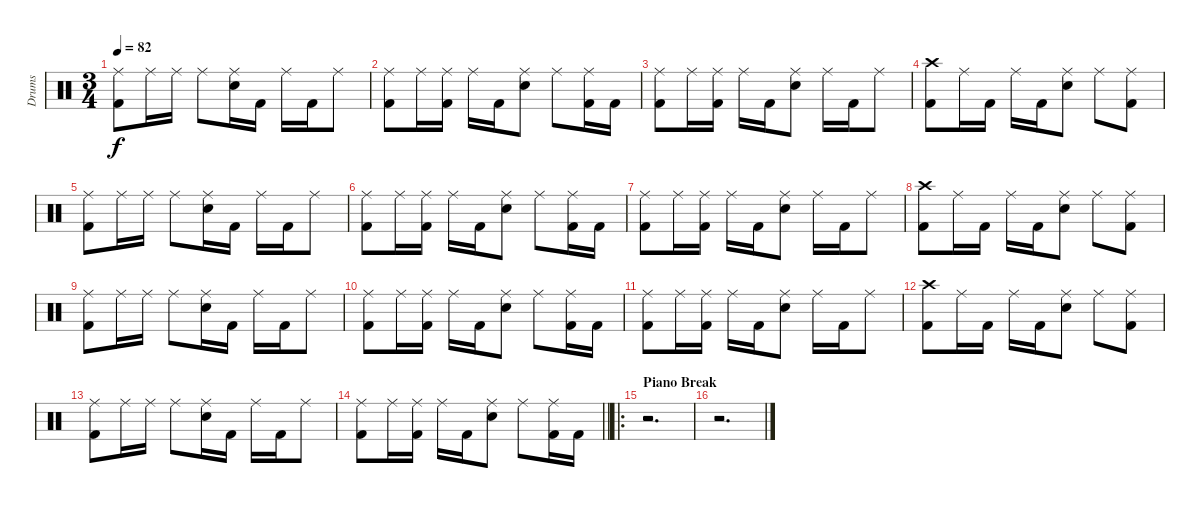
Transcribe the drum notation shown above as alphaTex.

\track ("Drums" "Drums") {instrument percussion}
\staff {score}
\articulation defaults
\ts (3 4)
\tempo 82
\clef neutral
\ks c
("Ride (middle)" "Kick (hit) 2").8{dy f} "Ride (middle)".16 "Ride (middle)".16 "Ride (middle)".8 ("Ride (middle)" "Electric Snare (hit)").16 "Kick (hit) 2".16 "Ride (middle)".16 "Kick (hit) 2".16 "Ride (middle)".8 |
("Ride (middle)" "Kick (hit) 2").8 "Ride (middle)".16 ("Ride (middle)" "Kick (hit) 2").16 "Ride (middle)".16 "Kick (hit) 2".16 ("Ride (middle)" "Electric Snare (hit)").8 "Ride (middle)".8 ("Ride (middle)" "Kick (hit) 2").16 "Kick (hit) 2".16 |
("Ride (middle)" "Kick (hit) 2").8 "Ride (middle)".16 ("Ride (middle)" "Kick (hit) 2").16 "Ride (middle)".16 "Kick (hit) 2".16 ("Ride (middle)" "Electric Snare (hit)").8 "Ride (middle)".16 "Kick (hit) 2".16 "Ride (middle)".8 |
("Crash high (hit)" "Kick (hit) 2").8 "Ride (middle)".16 "Kick (hit) 2".16 "Ride (middle)".16 "Kick (hit) 2".16 ("Ride (middle)" "Electric Snare (hit)").8 "Ride (middle)".8 ("Ride (middle)" "Kick (hit) 2").8 |
("Ride (middle)" "Kick (hit) 2").8 "Ride (middle)".16 "Ride (middle)".16 "Ride (middle)".8 ("Ride (middle)" "Electric Snare (hit)").16 "Kick (hit) 2".16 "Ride (middle)".16 "Kick (hit) 2".16 "Ride (middle)".8 |
("Ride (middle)" "Kick (hit) 2").8 "Ride (middle)".16 ("Ride (middle)" "Kick (hit) 2").16 "Ride (middle)".16 "Kick (hit) 2".16 ("Ride (middle)" "Electric Snare (hit)").8 "Ride (middle)".8 ("Ride (middle)" "Kick (hit) 2").16 "Kick (hit) 2".16 |
("Ride (middle)" "Kick (hit) 2").8 "Ride (middle)".16 ("Ride (middle)" "Kick (hit) 2").16 "Ride (middle)".16 "Kick (hit) 2".16 ("Ride (middle)" "Electric Snare (hit)").8 "Ride (middle)".16 "Kick (hit) 2".16 "Ride (middle)".8 |
("Crash high (hit)" "Kick (hit) 2").8 "Ride (middle)".16 "Kick (hit) 2".16 "Ride (middle)".16 "Kick (hit) 2".16 ("Ride (middle)" "Electric Snare (hit)").8 "Ride (middle)".8 ("Ride (middle)" "Kick (hit) 2").8 |
("Ride (middle)" "Kick (hit) 2").8 "Ride (middle)".16 "Ride (middle)".16 "Ride (middle)".8 ("Ride (middle)" "Electric Snare (hit)").16 "Kick (hit) 2".16 "Ride (middle)".16 "Kick (hit) 2".16 "Ride (middle)".8 |
("Ride (middle)" "Kick (hit) 2").8 "Ride (middle)".16 ("Ride (middle)" "Kick (hit) 2").16 "Ride (middle)".16 "Kick (hit) 2".16 ("Ride (middle)" "Electric Snare (hit)").8 "Ride (middle)".8 ("Ride (middle)" "Kick (hit) 2").16 "Kick (hit) 2".16 |
("Ride (middle)" "Kick (hit) 2").8 "Ride (middle)".16 ("Ride (middle)" "Kick (hit) 2").16 "Ride (middle)".16 "Kick (hit) 2".16 ("Ride (middle)" "Electric Snare (hit)").8 "Ride (middle)".16 "Kick (hit) 2".16 "Ride (middle)".8 |
("Crash high (hit)" "Kick (hit) 2").8 "Ride (middle)".16 "Kick (hit) 2".16 "Ride (middle)".16 "Kick (hit) 2".16 ("Ride (middle)" "Electric Snare (hit)").8 "Ride (middle)".8 ("Ride (middle)" "Kick (hit) 2").8 |
("Ride (middle)" "Kick (hit) 2").8 "Ride (middle)".16 "Ride (middle)".16 "Ride (middle)".8 ("Ride (middle)" "Electric Snare (hit)").16 "Kick (hit) 2".16 "Ride (middle)".16 "Kick (hit) 2".16 "Ride (middle)".8 |
\barLineRight lightlight
("Ride (middle)" "Kick (hit) 2").8 "Ride (middle)".16 ("Ride (middle)" "Kick (hit) 2").16 "Ride (middle)".16 "Kick (hit) 2".16 ("Ride (middle)" "Electric Snare (hit)").8 "Ride (middle)".8 ("Ride (middle)" "Kick (hit) 2").16 "Kick (hit) 2".16 |
\ro
\section ("" "Piano Break")
r.2{d} |
r.2{d}
